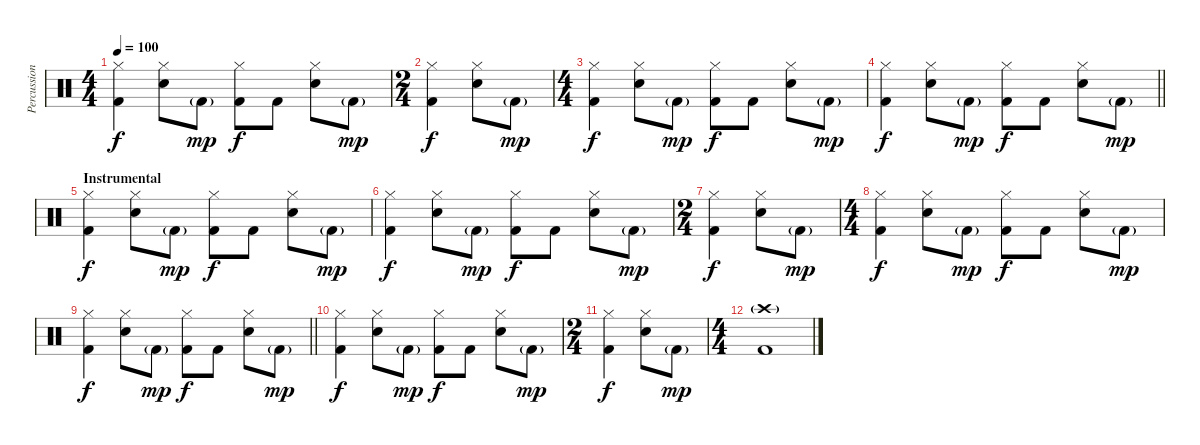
\track ("Percussion" "Percussion") {instrument percussion}
\staff {score}
\articulation defaults
\ts (4 4)
\tempo 100
\clef neutral
\ks c
("Hi-Hat (closed)" "Kick (hit) 2").4{dy f} ("Hi-Hat (closed)" "Snare (hit) 2").8 "Kick (hit) 2"{g}.8{dy mp} ("Hi-Hat (closed)" "Kick (hit) 2").8{dy f} "Kick (hit) 2".8 ("Hi-Hat (closed)" "Snare (hit) 2").8 "Kick (hit) 2"{g}.8{dy mp} |
\ts (2 4)
("Hi-Hat (closed)" "Kick (hit) 2").4{dy f} ("Hi-Hat (closed)" "Snare (hit) 2").8 "Kick (hit) 2"{g}.8{dy mp} |
\ts (4 4)
("Hi-Hat (closed)" "Kick (hit) 2").4{dy f} ("Hi-Hat (closed)" "Snare (hit) 2").8 "Kick (hit) 2"{g}.8{dy mp} ("Hi-Hat (closed)" "Kick (hit) 2").8{dy f} "Kick (hit) 2".8 ("Hi-Hat (closed)" "Snare (hit) 2").8 "Kick (hit) 2"{g}.8{dy mp} |
\barLineRight lightlight
("Hi-Hat (closed)" "Kick (hit) 2").4{dy f} ("Hi-Hat (closed)" "Snare (hit) 2").8 "Kick (hit) 2"{g}.8{dy mp} ("Hi-Hat (closed)" "Kick (hit) 2").8{dy f} "Kick (hit) 2".8 ("Hi-Hat (closed)" "Snare (hit) 2").8 "Kick (hit) 2"{g}.8{dy mp} |
\section ("" "Instrumental")
("Hi-Hat (closed)" "Kick (hit) 2").4{dy f} ("Hi-Hat (closed)" "Snare (hit) 2").8 "Kick (hit) 2"{g}.8{dy mp} ("Hi-Hat (closed)" "Kick (hit) 2").8{dy f} "Kick (hit) 2".8 ("Hi-Hat (closed)" "Snare (hit) 2").8 "Kick (hit) 2"{g}.8{dy mp} |
("Hi-Hat (closed)" "Kick (hit) 2").4{dy f} ("Hi-Hat (closed)" "Snare (hit) 2").8 "Kick (hit) 2"{g}.8{dy mp} ("Hi-Hat (closed)" "Kick (hit) 2").8{dy f} "Kick (hit) 2".8 ("Hi-Hat (closed)" "Snare (hit) 2").8 "Kick (hit) 2"{g}.8{dy mp} |
\ts (2 4)
("Hi-Hat (closed)" "Kick (hit) 2").4{dy f} ("Hi-Hat (closed)" "Snare (hit) 2").8 "Kick (hit) 2"{g}.8{dy mp} |
\ts (4 4)
("Hi-Hat (closed)" "Kick (hit) 2").4{dy f} ("Hi-Hat (closed)" "Snare (hit) 2").8 "Kick (hit) 2"{g}.8{dy mp} ("Hi-Hat (closed)" "Kick (hit) 2").8{dy f} "Kick (hit) 2".8 ("Hi-Hat (closed)" "Snare (hit) 2").8 "Kick (hit) 2"{g}.8{dy mp} |
\barLineRight lightlight
("Hi-Hat (closed)" "Kick (hit) 2").4{dy f} ("Hi-Hat (closed)" "Snare (hit) 2").8 "Kick (hit) 2"{g}.8{dy mp} ("Hi-Hat (closed)" "Kick (hit) 2").8{dy f} "Kick (hit) 2".8 ("Hi-Hat (closed)" "Snare (hit) 2").8 "Kick (hit) 2"{g}.8{dy mp} |
("Hi-Hat (closed)" "Kick (hit) 2").4{dy f} ("Hi-Hat (closed)" "Snare (hit) 2").8 "Kick (hit) 2"{g}.8{dy mp} ("Hi-Hat (closed)" "Kick (hit) 2").8{dy f} "Kick (hit) 2".8 ("Hi-Hat (closed)" "Snare (hit) 2").8 "Kick (hit) 2"{g}.8{dy mp} |
\ts (2 4)
("Hi-Hat (closed)" "Kick (hit) 2").4{dy f} ("Hi-Hat (closed)" "Snare (hit) 2").8 "Kick (hit) 2"{g}.8{dy mp} |
\ts (4 4)
("Crash high (hit)"{g} "Kick (hit) 2").1
